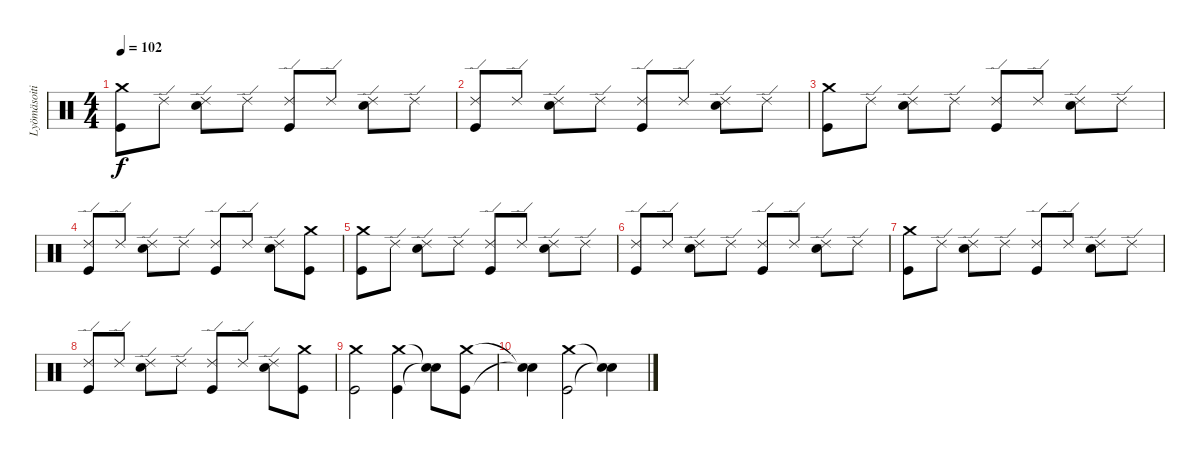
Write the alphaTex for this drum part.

\track ("Lyömäsoitin" "Lyömäsoiti") {instrument percussion}
\staff {score}
\articulation defaults
\ts (4 4)
\tempo 102
\clef neutral
\ks c
("Crash medium (hit)" "Kick (hit)").8{dy f} "Ride (edge) 2".8 ("Ride (edge) 2" "Snare (hit) 2").8 "Ride (edge) 2".8 ("Ride (edge) 2" "Kick (hit)").8 "Ride (edge) 2".8 ("Ride (edge) 2" "Snare (hit) 2").8 "Ride (edge) 2".8 |
("Ride (edge) 2" "Kick (hit)").8 "Ride (edge) 2".8 ("Ride (edge) 2" "Snare (hit) 2").8 "Ride (edge) 2".8 ("Ride (edge) 2" "Kick (hit)").8 "Ride (edge) 2".8 ("Ride (edge) 2" "Snare (hit) 2").8 "Ride (edge) 2".8 |
("Crash medium (hit)" "Kick (hit)").8 "Ride (edge) 2".8 ("Ride (edge) 2" "Snare (hit) 2").8 "Ride (edge) 2".8 ("Ride (edge) 2" "Kick (hit)").8 "Ride (edge) 2".8 ("Ride (edge) 2" "Snare (hit) 2").8 "Ride (edge) 2".8 |
("Ride (edge) 2" "Kick (hit)").8 "Ride (edge) 2".8 ("Ride (edge) 2" "Snare (hit) 2").8 "Ride (edge) 2".8 ("Ride (edge) 2" "Kick (hit)").8 "Ride (edge) 2".8 ("Ride (edge) 2" "Snare (hit) 2").8 ("Crash medium (hit)" "Kick (hit)").8 |
("Crash medium (hit)" "Kick (hit)").8 "Ride (edge) 2".8 ("Ride (edge) 2" "Snare (hit) 2").8 "Ride (edge) 2".8 ("Ride (edge) 2" "Kick (hit)").8 "Ride (edge) 2".8 ("Ride (edge) 2" "Snare (hit) 2").8 "Ride (edge) 2".8 |
("Ride (edge) 2" "Kick (hit)").8 "Ride (edge) 2".8 ("Ride (edge) 2" "Snare (hit) 2").8 "Ride (edge) 2".8 ("Ride (edge) 2" "Kick (hit)").8 "Ride (edge) 2".8 ("Ride (edge) 2" "Snare (hit) 2").8 "Ride (edge) 2".8 |
("Crash medium (hit)" "Kick (hit)").8 "Ride (edge) 2".8 ("Ride (edge) 2" "Snare (hit) 2").8 "Ride (edge) 2".8 ("Ride (edge) 2" "Kick (hit)").8 "Ride (edge) 2".8 ("Ride (edge) 2" "Snare (hit) 2").8 "Ride (edge) 2".8 |
("Ride (edge) 2" "Kick (hit)").8 "Ride (edge) 2".8 ("Ride (edge) 2" "Snare (hit) 2").8 "Ride (edge) 2".8 ("Ride (edge) 2" "Kick (hit)").8 "Ride (edge) 2".8 ("Ride (edge) 2" "Snare (hit) 2").8 ("Crash medium (hit)" "Kick (hit)").8 |
("Crash medium (hit)" "Kick (hit)").2 ("Crash medium (hit)" "Kick (hit)").4 ("Snare (hit)"{t} "Snare (hit)"{t}).8 ("Crash medium (hit)" "Kick (hit)").8 |
("Snare (hit)"{t} "Snare (hit)"{t}).4 ("Crash medium (hit)" "Kick (hit)").2 ("Snare (hit)"{t} "Snare (hit)"{t}).4
